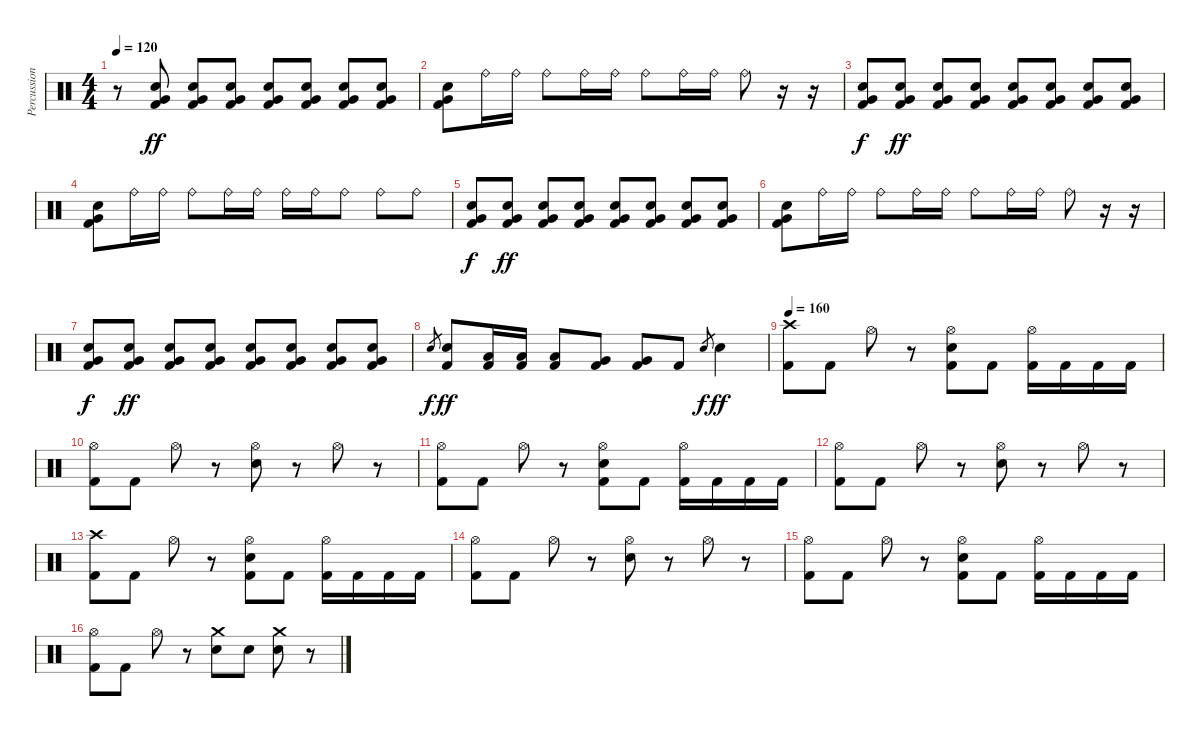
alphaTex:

\track ("Percussion" "Percussion") {instrument percussion}
\staff {score}
\articulation defaults
\ts (4 4)
\tempo 120
\clef neutral
\ks c
r.8{dy ff} ("Very Low Tom (hit)" "Electric Snare (hit)" "Kick (hit) 2").8 ("Very Low Tom (hit)" "Electric Snare (hit)" "Kick (hit) 2").8 ("Very Low Tom (hit)" "Electric Snare (hit)" "Kick (hit) 2").8 ("Very Low Tom (hit)" "Electric Snare (hit)" "Kick (hit) 2").8 ("Very Low Tom (hit)" "Electric Snare (hit)" "Kick (hit) 2").8 ("Very Low Tom (hit)" "Electric Snare (hit)" "Kick (hit) 2").8 ("Very Low Tom (hit)" "Electric Snare (hit)" "Kick (hit) 2").8 |
("Very Low Tom (hit)" "Electric Snare (hit)" "Kick (hit) 2").8 "Ride (bell)".16 "Ride (bell)".16 "Ride (bell)".8 "Ride (bell)".16 "Ride (bell)".16 "Ride (bell)".8 "Ride (bell)".16 "Ride (bell)".16 "Ride (bell)".8 r.16 r.16 |
("Very Low Tom (hit)" "Electric Snare (hit)" "Kick (hit) 2").8{dy f} ("Very Low Tom (hit)" "Electric Snare (hit)" "Kick (hit) 2").8{dy ff} ("Very Low Tom (hit)" "Electric Snare (hit)" "Kick (hit) 2").8 ("Very Low Tom (hit)" "Electric Snare (hit)" "Kick (hit) 2").8 ("Very Low Tom (hit)" "Electric Snare (hit)" "Kick (hit) 2").8 ("Very Low Tom (hit)" "Electric Snare (hit)" "Kick (hit) 2").8 ("Very Low Tom (hit)" "Electric Snare (hit)" "Kick (hit) 2").8 ("Very Low Tom (hit)" "Electric Snare (hit)" "Kick (hit) 2").8 |
("Very Low Tom (hit)" "Electric Snare (hit)" "Kick (hit) 2").8 "Ride (bell)".16 "Ride (bell)".16 "Ride (bell)".8 "Ride (bell)".16 "Ride (bell)".16 "Ride (bell)".16 "Ride (bell)".16 "Ride (bell)".8 "Ride (bell)".8 "Ride (bell)".8 |
("Very Low Tom (hit)" "Electric Snare (hit)" "Kick (hit) 2").8{dy f} ("Very Low Tom (hit)" "Electric Snare (hit)" "Kick (hit) 2").8{dy ff} ("Very Low Tom (hit)" "Electric Snare (hit)" "Kick (hit) 2").8 ("Very Low Tom (hit)" "Electric Snare (hit)" "Kick (hit) 2").8 ("Very Low Tom (hit)" "Electric Snare (hit)" "Kick (hit) 2").8 ("Very Low Tom (hit)" "Electric Snare (hit)" "Kick (hit) 2").8 ("Very Low Tom (hit)" "Electric Snare (hit)" "Kick (hit) 2").8 ("Very Low Tom (hit)" "Electric Snare (hit)" "Kick (hit) 2").8 |
("Very Low Tom (hit)" "Electric Snare (hit)" "Kick (hit) 2").8 "Ride (bell)".16 "Ride (bell)".16 "Ride (bell)".8 "Ride (bell)".16 "Ride (bell)".16 "Ride (bell)".8 "Ride (bell)".16 "Ride (bell)".16 "Ride (bell)".8 r.16 r.16 |
("Very Low Tom (hit)" "Electric Snare (hit)" "Kick (hit) 2").8{dy f} ("Very Low Tom (hit)" "Electric Snare (hit)" "Kick (hit) 2").8{dy ff} ("Very Low Tom (hit)" "Electric Snare (hit)" "Kick (hit) 2").8 ("Very Low Tom (hit)" "Electric Snare (hit)" "Kick (hit) 2").8 ("Very Low Tom (hit)" "Electric Snare (hit)" "Kick (hit) 2").8 ("Very Low Tom (hit)" "Electric Snare (hit)" "Kick (hit) 2").8 ("Very Low Tom (hit)" "Electric Snare (hit)" "Kick (hit) 2").8 ("Very Low Tom (hit)" "Electric Snare (hit)" "Kick (hit) 2").8 |
"Electric Snare (hit)".8{gr dy f} ("Electric Snare (hit)" "Kick (hit) 2").8{dy ff} ("Low Tom (hit)" "Kick (hit) 2").16 ("Low Tom (hit)" "Kick (hit) 2").16 ("Low Tom (hit)" "Kick (hit) 2").8 ("Very Low Tom (hit)" "Kick (hit) 2").8 ("Very Low Tom (hit)" "Kick (hit) 2").8 "Kick (hit) 2".8 "Electric Snare (hit)".8{gr dy f} "Electric Snare (hit)".4{dy ff} |
\tempo 160
("Crash high (hit)" "Kick (hit) 2").8 "Kick (hit) 2".8 "Hi-Hat (open)".8 r.8 ("Hi-Hat (open)" "Electric Snare (hit)" "Kick (hit) 2").8 "Kick (hit) 2".8 ("Hi-Hat (open)" "Kick (hit) 2").16 "Kick (hit) 2".16 "Kick (hit) 2".16 "Kick (hit) 2".16 |
("Hi-Hat (open)" "Kick (hit) 2").8 "Kick (hit) 2".8 "Hi-Hat (open)".8 r.8 ("Hi-Hat (open)" "Electric Snare (hit)").8 r.8 "Hi-Hat (open)".8 r.8 |
("Hi-Hat (open)" "Kick (hit) 2").8 "Kick (hit) 2".8 "Hi-Hat (open)".8 r.8 ("Hi-Hat (open)" "Electric Snare (hit)" "Kick (hit) 2").8 "Kick (hit) 2".8 ("Hi-Hat (open)" "Kick (hit) 2").16 "Kick (hit) 2".16 "Kick (hit) 2".16 "Kick (hit) 2".16 |
("Hi-Hat (open)" "Kick (hit) 2").8 "Kick (hit) 2".8 "Hi-Hat (open)".8 r.8 ("Hi-Hat (open)" "Electric Snare (hit)").8 r.8 "Hi-Hat (open)".8 r.8 |
("Crash high (hit)" "Kick (hit) 2").8 "Kick (hit) 2".8 "Hi-Hat (open)".8 r.8 ("Hi-Hat (open)" "Electric Snare (hit)" "Kick (hit) 2").8 "Kick (hit) 2".8 ("Hi-Hat (open)" "Kick (hit) 2").16 "Kick (hit) 2".16 "Kick (hit) 2".16 "Kick (hit) 2".16 |
("Hi-Hat (open)" "Kick (hit) 2").8 "Kick (hit) 2".8 "Hi-Hat (open)".8 r.8 ("Hi-Hat (open)" "Electric Snare (hit)").8 r.8 "Hi-Hat (open)".8 r.8 |
("Hi-Hat (open)" "Kick (hit) 2").8 "Kick (hit) 2".8 "Hi-Hat (open)".8 r.8 ("Hi-Hat (open)" "Electric Snare (hit)" "Kick (hit) 2").8 "Kick (hit) 2".8 ("Hi-Hat (open)" "Kick (hit) 2").16 "Kick (hit) 2".16 "Kick (hit) 2".16 "Kick (hit) 2".16 |
("Hi-Hat (open)" "Kick (hit) 2").8 "Kick (hit) 2".8 "Hi-Hat (open)".8 r.8 ("Crash medium (hit)" "Electric Snare (hit)").8 "Electric Snare (hit)".8 ("Crash medium (hit)" "Electric Snare (hit)").8 r.8
